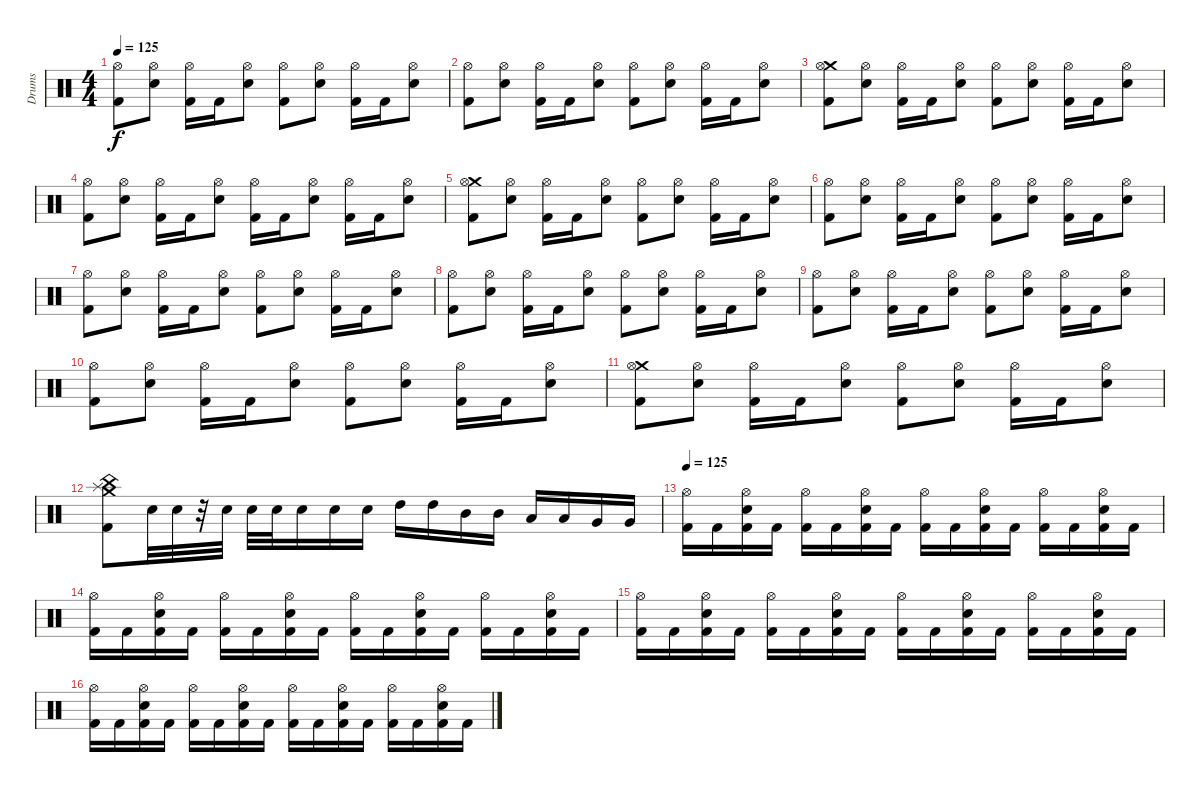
\track ("Drums" "Drums") {instrument percussion}
\staff {score}
\articulation defaults
\ts (4 4)
\tempo 125
\clef neutral
\ks c
("Hi-Hat (open)" "Kick (hit) 2").8{dy f} ("Hi-Hat (open)" "Electric Snare (hit)").8 ("Hi-Hat (open)" "Kick (hit) 2").16 "Kick (hit) 2".16 ("Hi-Hat (open)" "Electric Snare (hit)").8 ("Hi-Hat (open)" "Kick (hit) 2").8 ("Hi-Hat (open)" "Electric Snare (hit)").8 ("Hi-Hat (open)" "Kick (hit) 2").16 "Kick (hit) 2".16 ("Hi-Hat (open)" "Electric Snare (hit)").8 |
("Hi-Hat (open)" "Kick (hit) 2").8 ("Hi-Hat (open)" "Electric Snare (hit)").8 ("Hi-Hat (open)" "Kick (hit) 2").16 "Kick (hit) 2".16 ("Hi-Hat (open)" "Electric Snare (hit)").8 ("Hi-Hat (open)" "Kick (hit) 2").8 ("Hi-Hat (open)" "Electric Snare (hit)").8 ("Hi-Hat (open)" "Kick (hit) 2").16 "Kick (hit) 2".16 ("Hi-Hat (open)" "Electric Snare (hit)").8 |
("Crash medium (hit)" "Hi-Hat (open)" "Kick (hit) 2").8 ("Hi-Hat (open)" "Electric Snare (hit)").8 ("Hi-Hat (open)" "Kick (hit) 2").16 "Kick (hit) 2".16 ("Hi-Hat (open)" "Electric Snare (hit)").8 ("Hi-Hat (open)" "Kick (hit) 2").8 ("Hi-Hat (open)" "Electric Snare (hit)").8 ("Hi-Hat (open)" "Kick (hit) 2").16 "Kick (hit) 2".16 ("Hi-Hat (open)" "Electric Snare (hit)").8 |
("Hi-Hat (open)" "Kick (hit) 2").8 ("Hi-Hat (open)" "Electric Snare (hit)").8 ("Hi-Hat (open)" "Kick (hit) 2").16 "Kick (hit) 2".16 ("Hi-Hat (open)" "Electric Snare (hit)").8 ("Kick (hit) 2" "Hi-Hat (open)").16 "Kick (hit) 2".16 ("Hi-Hat (open)" "Electric Snare (hit)").8 ("Hi-Hat (open)" "Kick (hit) 2").16 "Kick (hit) 2".16 ("Hi-Hat (open)" "Electric Snare (hit)").8 |
("Crash medium (hit)" "Hi-Hat (open)" "Kick (hit) 2").8 ("Hi-Hat (open)" "Electric Snare (hit)").8 ("Hi-Hat (open)" "Kick (hit) 2").16 "Kick (hit) 2".16 ("Hi-Hat (open)" "Electric Snare (hit)").8 ("Hi-Hat (open)" "Kick (hit) 2").8 ("Hi-Hat (open)" "Electric Snare (hit)").8 ("Hi-Hat (open)" "Kick (hit) 2").16 "Kick (hit) 2".16 ("Hi-Hat (open)" "Electric Snare (hit)").8 |
("Hi-Hat (open)" "Kick (hit) 2").8 ("Hi-Hat (open)" "Electric Snare (hit)").8 ("Hi-Hat (open)" "Kick (hit) 2").16 "Kick (hit) 2".16 ("Hi-Hat (open)" "Electric Snare (hit)").8 ("Hi-Hat (open)" "Kick (hit) 2").8 ("Hi-Hat (open)" "Electric Snare (hit)").8 ("Hi-Hat (open)" "Kick (hit) 2").16 "Kick (hit) 2".16 ("Hi-Hat (open)" "Electric Snare (hit)").8 |
("Hi-Hat (open)" "Kick (hit) 2").8 ("Hi-Hat (open)" "Electric Snare (hit)").8 ("Hi-Hat (open)" "Kick (hit) 2").16 "Kick (hit) 2".16 ("Hi-Hat (open)" "Electric Snare (hit)").8 ("Hi-Hat (open)" "Kick (hit) 2").8 ("Hi-Hat (open)" "Electric Snare (hit)").8 ("Hi-Hat (open)" "Kick (hit) 2").16 "Kick (hit) 2".16 ("Hi-Hat (open)" "Electric Snare (hit)").8 |
("Hi-Hat (open)" "Kick (hit) 2").8 ("Hi-Hat (open)" "Electric Snare (hit)").8 ("Hi-Hat (open)" "Kick (hit) 2").16 "Kick (hit) 2".16 ("Hi-Hat (open)" "Electric Snare (hit)").8 ("Hi-Hat (open)" "Kick (hit) 2").8 ("Hi-Hat (open)" "Electric Snare (hit)").8 ("Hi-Hat (open)" "Kick (hit) 2").16 "Kick (hit) 2".16 ("Hi-Hat (open)" "Electric Snare (hit)").8 |
("Hi-Hat (open)" "Kick (hit) 2").8 ("Hi-Hat (open)" "Electric Snare (hit)").8 ("Hi-Hat (open)" "Kick (hit) 2").16 "Kick (hit) 2".16 ("Hi-Hat (open)" "Electric Snare (hit)").8 ("Hi-Hat (open)" "Kick (hit) 2").8 ("Hi-Hat (open)" "Electric Snare (hit)").8 ("Hi-Hat (open)" "Kick (hit) 2").16 "Kick (hit) 2".16 ("Hi-Hat (open)" "Electric Snare (hit)").8 |
("Hi-Hat (open)" "Kick (hit) 2").8 ("Hi-Hat (open)" "Electric Snare (hit)").8 ("Hi-Hat (open)" "Kick (hit) 2").16 "Kick (hit) 2".16 ("Hi-Hat (open)" "Electric Snare (hit)").8 ("Hi-Hat (open)" "Kick (hit) 2").8 ("Hi-Hat (open)" "Electric Snare (hit)").8 ("Hi-Hat (open)" "Kick (hit) 2").16 "Kick (hit) 2".16 ("Hi-Hat (open)" "Electric Snare (hit)").8 |
("Crash medium (hit)" "Hi-Hat (open)" "Kick (hit) 2").8 ("Hi-Hat (open)" "Electric Snare (hit)").8 ("Hi-Hat (open)" "Kick (hit) 2").16 "Kick (hit) 2".16 ("Hi-Hat (open)" "Electric Snare (hit)").8 ("Hi-Hat (open)" "Kick (hit) 2").8 ("Hi-Hat (open)" "Electric Snare (hit)").8 ("Hi-Hat (open)" "Kick (hit) 2").16 "Kick (hit) 2".16 ("Hi-Hat (open)" "Electric Snare (hit)").8 |
("Splash (hit)" "Crash medium (hit)" "China (hit)" "Kick (hit) 2").8{volume 15} "Electric Snare (hit)".32{volume 4} "Electric Snare (hit)".32{volume 5} r.32 "Electric Snare (hit)".32{volume 6} "Electric Snare (hit)".32{volume 8} "Electric Snare (hit)".32{volume 8} "Electric Snare (hit)".16{volume 9} "Electric Snare (hit)".16{volume 11} "Electric Snare (hit)".16{volume 13} "High Tom (hit)".16{volume 15} "High Tom (hit)".16 "Mid Tom (hit)".16 "Mid Tom (hit)".16 "Low Tom (hit)".16 "Low Tom (hit)".16 "Very Low Tom (hit)".16 "Very Low Tom (hit)".16 |
\tempo 125
("Kick (hit) 2" "Hi-Hat (open)").16 "Kick (hit) 2".16 ("Kick (hit) 2" "Electric Snare (hit)" "Hi-Hat (open)").16 "Kick (hit) 2".16 ("Kick (hit) 2" "Hi-Hat (open)").16 "Kick (hit) 2".16 ("Kick (hit) 2" "Electric Snare (hit)" "Hi-Hat (open)").16 "Kick (hit) 2".16 ("Kick (hit) 2" "Hi-Hat (open)").16 "Kick (hit) 2".16 ("Kick (hit) 2" "Electric Snare (hit)" "Hi-Hat (open)").16 "Kick (hit) 2".16 ("Kick (hit) 2" "Hi-Hat (open)").16 "Kick (hit) 2".16 ("Kick (hit) 2" "Electric Snare (hit)" "Hi-Hat (open)").16 "Kick (hit) 2".16 |
("Kick (hit) 2" "Hi-Hat (open)").16 "Kick (hit) 2".16 ("Kick (hit) 2" "Electric Snare (hit)" "Hi-Hat (open)").16 "Kick (hit) 2".16 ("Kick (hit) 2" "Hi-Hat (open)").16 "Kick (hit) 2".16 ("Kick (hit) 2" "Electric Snare (hit)" "Hi-Hat (open)").16 "Kick (hit) 2".16 ("Kick (hit) 2" "Hi-Hat (open)").16 "Kick (hit) 2".16 ("Kick (hit) 2" "Electric Snare (hit)" "Hi-Hat (open)").16 "Kick (hit) 2".16 ("Kick (hit) 2" "Hi-Hat (open)").16 "Kick (hit) 2".16 ("Kick (hit) 2" "Electric Snare (hit)" "Hi-Hat (open)").16 "Kick (hit) 2".16 |
("Kick (hit) 2" "Hi-Hat (open)").16 "Kick (hit) 2".16 ("Kick (hit) 2" "Electric Snare (hit)" "Hi-Hat (open)").16 "Kick (hit) 2".16 ("Kick (hit) 2" "Hi-Hat (open)").16 "Kick (hit) 2".16 ("Kick (hit) 2" "Electric Snare (hit)" "Hi-Hat (open)").16 "Kick (hit) 2".16 ("Kick (hit) 2" "Hi-Hat (open)").16 "Kick (hit) 2".16 ("Kick (hit) 2" "Electric Snare (hit)" "Hi-Hat (open)").16 "Kick (hit) 2".16 ("Kick (hit) 2" "Hi-Hat (open)").16 "Kick (hit) 2".16 ("Kick (hit) 2" "Electric Snare (hit)" "Hi-Hat (open)").16 "Kick (hit) 2".16 |
("Kick (hit) 2" "Hi-Hat (open)").16 "Kick (hit) 2".16 ("Kick (hit) 2" "Electric Snare (hit)" "Hi-Hat (open)").16 "Kick (hit) 2".16 ("Kick (hit) 2" "Hi-Hat (open)").16 "Kick (hit) 2".16 ("Kick (hit) 2" "Electric Snare (hit)" "Hi-Hat (open)").16 "Kick (hit) 2".16 ("Kick (hit) 2" "Hi-Hat (open)").16 "Kick (hit) 2".16 ("Kick (hit) 2" "Electric Snare (hit)" "Hi-Hat (open)").16 "Kick (hit) 2".16 ("Kick (hit) 2" "Hi-Hat (open)").16 "Kick (hit) 2".16 ("Kick (hit) 2" "Electric Snare (hit)" "Hi-Hat (open)").16 "Kick (hit) 2".16
